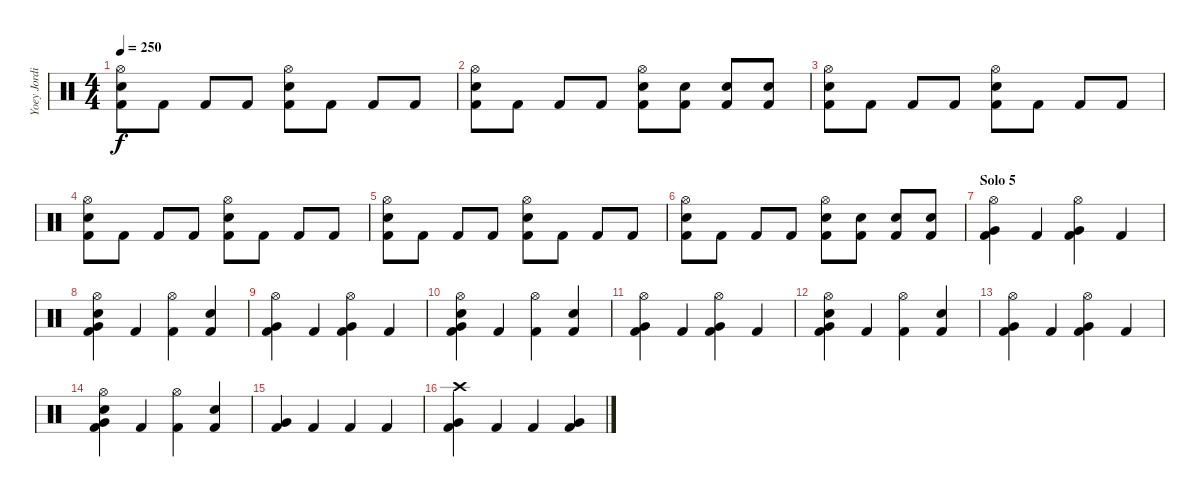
\track ("Yoey Jordison" "Yoey Jordi") {instrument percussion}
\staff {score}
\articulation defaults
\ts (4 4)
\tempo 250
\clef neutral
\ks c
("Hi-Hat (open)" "Kick (hit) 2" "Electric Snare (hit)").8{dy f} "Kick (hit) 2".8 "Kick (hit) 2".8 "Kick (hit) 2".8 ("Hi-Hat (open)" "Kick (hit) 2" "Snare (hit) 2").8 "Kick (hit) 2".8 "Kick (hit) 2".8 "Kick (hit) 2".8 |
("Hi-Hat (open)" "Kick (hit) 2" "Electric Snare (hit)").8 "Kick (hit) 2".8 "Kick (hit) 2".8 "Kick (hit) 2".8 ("Hi-Hat (open)" "Kick (hit) 2" "Electric Snare (hit)").8 ("Kick (hit) 2" "Electric Snare (hit)").8 ("Kick (hit) 2" "Electric Snare (hit)").8 ("Kick (hit) 2" "Electric Snare (hit)").8 |
("Hi-Hat (open)" "Kick (hit) 2" "Electric Snare (hit)").8 "Kick (hit) 2".8 "Kick (hit) 2".8 "Kick (hit) 2".8 ("Hi-Hat (open)" "Kick (hit) 2" "Snare (hit) 2").8 "Kick (hit) 2".8 "Kick (hit) 2".8 "Kick (hit) 2".8 |
("Hi-Hat (open)" "Kick (hit) 2" "Electric Snare (hit)").8 "Kick (hit) 2".8 "Kick (hit) 2".8 "Kick (hit) 2".8 ("Hi-Hat (open)" "Kick (hit) 2" "Snare (hit) 2").8 "Kick (hit) 2".8 "Kick (hit) 2".8 "Kick (hit) 2".8 |
("Hi-Hat (open)" "Kick (hit) 2" "Electric Snare (hit)").8 "Kick (hit) 2".8 "Kick (hit) 2".8 "Kick (hit) 2".8 ("Hi-Hat (open)" "Kick (hit) 2" "Snare (hit) 2").8 "Kick (hit) 2".8 "Kick (hit) 2".8 "Kick (hit) 2".8 |
("Hi-Hat (open)" "Kick (hit) 2" "Electric Snare (hit)").8 "Kick (hit) 2".8 "Kick (hit) 2".8 "Kick (hit) 2".8 ("Hi-Hat (open)" "Kick (hit) 2" "Electric Snare (hit)").8 ("Kick (hit) 2" "Electric Snare (hit)").8 ("Kick (hit) 2" "Electric Snare (hit)").8 ("Kick (hit) 2" "Electric Snare (hit)").8 |
\section ("" "Solo 5")
("Hi-Hat (open)" "Kick (hit) 2" "Very Low Tom (hit)").4 "Kick (hit) 2".4 ("Hi-Hat (open)" "Kick (hit) 2" "Very Low Tom (hit)").4 "Kick (hit) 2".4 |
("Hi-Hat (open)" "Kick (hit) 2" "Very Low Tom (hit)" "Snare (hit) 2").4 "Kick (hit) 2".4 ("Hi-Hat (open)" "Kick (hit) 2").4 ("Kick (hit) 2" "Snare (hit) 2").4 |
("Hi-Hat (open)" "Kick (hit) 2" "Very Low Tom (hit)").4 "Kick (hit) 2".4 ("Hi-Hat (open)" "Kick (hit) 2" "Very Low Tom (hit)").4 "Kick (hit) 2".4 |
("Hi-Hat (open)" "Kick (hit) 2" "Very Low Tom (hit)" "Snare (hit) 2").4 "Kick (hit) 2".4 ("Hi-Hat (open)" "Kick (hit) 2").4 ("Kick (hit) 2" "Snare (hit) 2").4 |
("Hi-Hat (open)" "Kick (hit) 2" "Very Low Tom (hit)").4 "Kick (hit) 2".4 ("Hi-Hat (open)" "Kick (hit) 2" "Very Low Tom (hit)").4 "Kick (hit) 2".4 |
("Hi-Hat (open)" "Kick (hit) 2" "Very Low Tom (hit)" "Snare (hit) 2").4 "Kick (hit) 2".4 ("Hi-Hat (open)" "Kick (hit) 2").4 ("Kick (hit) 2" "Snare (hit) 2").4 |
("Hi-Hat (open)" "Kick (hit) 2" "Very Low Tom (hit)").4 "Kick (hit) 2".4 ("Hi-Hat (open)" "Kick (hit) 2" "Very Low Tom (hit)").4 "Kick (hit) 2".4 |
("Hi-Hat (open)" "Kick (hit) 2" "Very Low Tom (hit)" "Snare (hit) 2").4 "Kick (hit) 2".4 ("Hi-Hat (open)" "Kick (hit) 2").4 ("Kick (hit) 2" "Snare (hit) 2").4 |
("Kick (hit) 2" "Very Low Tom (hit)").4 "Kick (hit) 2".4 "Kick (hit) 2".4 "Kick (hit) 2".4 |
("Crash high (hit)" "Kick (hit) 2" "Very Low Tom (hit)").4 "Kick (hit) 2".4 "Kick (hit) 2".4 ("Kick (hit) 2" "Very Low Tom (hit)").4
